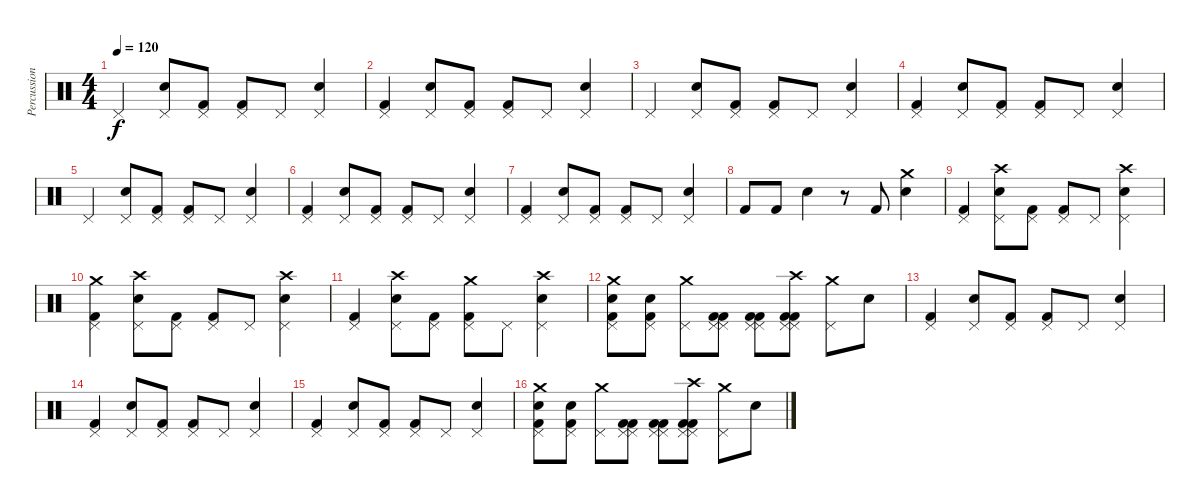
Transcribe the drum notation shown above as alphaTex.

\track ("Percussion" "Percussion") {instrument percussion}
\staff {score}
\articulation defaults
\ts (4 4)
\tempo 120
\clef neutral
\ks c "Pedal Hi-Hat (hit)".4{dy f}
("Pedal Hi-Hat (hit)" "Electric Snare (hit)").8 ("Pedal Hi-Hat (hit)" "Kick (hit) 2").8 ("Pedal Hi-Hat (hit)" "Kick (hit) 2").8 "Pedal Hi-Hat (hit)".8 ("Pedal Hi-Hat (hit)" "Electric Snare (hit)").4 |
("Pedal Hi-Hat (hit)" "Kick (hit) 2").4 ("Pedal Hi-Hat (hit)" "Electric Snare (hit)").8 ("Pedal Hi-Hat (hit)" "Kick (hit) 2").8 ("Pedal Hi-Hat (hit)" "Kick (hit) 2").8 "Pedal Hi-Hat (hit)".8 ("Pedal Hi-Hat (hit)" "Electric Snare (hit)").4 |
"Pedal Hi-Hat (hit)".4 ("Pedal Hi-Hat (hit)" "Electric Snare (hit)").8 ("Pedal Hi-Hat (hit)" "Kick (hit) 2").8 ("Pedal Hi-Hat (hit)" "Kick (hit) 2").8 "Pedal Hi-Hat (hit)".8 ("Pedal Hi-Hat (hit)" "Electric Snare (hit)").4 |
("Pedal Hi-Hat (hit)" "Kick (hit) 2").4 ("Pedal Hi-Hat (hit)" "Electric Snare (hit)").8 ("Pedal Hi-Hat (hit)" "Kick (hit) 2").8 ("Pedal Hi-Hat (hit)" "Kick (hit) 2").8 "Pedal Hi-Hat (hit)".8 ("Pedal Hi-Hat (hit)" "Electric Snare (hit)").4 |
"Pedal Hi-Hat (hit)".4 ("Pedal Hi-Hat (hit)" "Electric Snare (hit)").8 ("Pedal Hi-Hat (hit)" "Kick (hit) 2").8 ("Pedal Hi-Hat (hit)" "Kick (hit) 2").8 "Pedal Hi-Hat (hit)".8 ("Pedal Hi-Hat (hit)" "Electric Snare (hit)").4 |
("Pedal Hi-Hat (hit)" "Kick (hit) 2").4 ("Pedal Hi-Hat (hit)" "Electric Snare (hit)").8 ("Pedal Hi-Hat (hit)" "Kick (hit) 2").8 ("Pedal Hi-Hat (hit)" "Kick (hit) 2").8 "Pedal Hi-Hat (hit)".8 ("Pedal Hi-Hat (hit)" "Electric Snare (hit)").4 |
("Pedal Hi-Hat (hit)" "Kick (hit) 2").4 ("Pedal Hi-Hat (hit)" "Electric Snare (hit)").8 ("Pedal Hi-Hat (hit)" "Kick (hit) 2").8 ("Pedal Hi-Hat (hit)" "Kick (hit) 2").8 "Pedal Hi-Hat (hit)".8 ("Pedal Hi-Hat (hit)" "Electric Snare (hit)").4 |
"Kick (hit) 2".8 "Kick (hit) 2".8 "Electric Snare (hit)".4 r.8 "Kick (hit) 2".8 ("Crash medium (hit)" "Electric Snare (hit)").4 |
("Pedal Hi-Hat (hit)" "Kick (hit) 2").4 ("Pedal Hi-Hat (hit)" "Crash high (hit)" "Electric Snare (hit)").8 ("Pedal Hi-Hat (hit)" "Kick (hit) 2").8 ("Pedal Hi-Hat (hit)" "Kick (hit) 2").8 "Pedal Hi-Hat (hit)".8 ("Pedal Hi-Hat (hit)" "Electric Snare (hit)" "Crash high (hit)").4 |
("Pedal Hi-Hat (hit)" "Crash medium (hit)" "Kick (hit) 2").4 ("Pedal Hi-Hat (hit)" "Crash high (hit)" "Electric Snare (hit)").8 ("Pedal Hi-Hat (hit)" "Kick (hit) 2").8 ("Pedal Hi-Hat (hit)" "Kick (hit) 2").8 "Pedal Hi-Hat (hit)".8 ("Pedal Hi-Hat (hit)" "Electric Snare (hit)" "Crash high (hit)").4 |
("Pedal Hi-Hat (hit)" "Kick (hit) 2").4 ("Pedal Hi-Hat (hit)" "Crash high (hit)" "Electric Snare (hit)").8 ("Pedal Hi-Hat (hit)" "Kick (hit) 2").8 ("Pedal Hi-Hat (hit)" "Crash medium (hit)" "Kick (hit) 2").8 "Pedal Hi-Hat (hit)".8 ("Pedal Hi-Hat (hit)" "Electric Snare (hit)" "Crash high (hit)").4 |
("Pedal Hi-Hat (hit)" "Crash medium (hit)" "Electric Snare (hit)" "Kick (hit) 2").8 ("Pedal Hi-Hat (hit)" "Electric Snare (hit)" "Kick (hit) 2").8 ("Pedal Hi-Hat (hit)" "Crash medium (hit)").8 ("Pedal Hi-Hat (hit)" "Pedal Hi-Hat (hit)" "Kick (hit) 2" "Kick (hit) 2").8 ("Pedal Hi-Hat (hit)" "Pedal Hi-Hat (hit)" "Kick (hit) 2" "Kick (hit) 2").8 ("Pedal Hi-Hat (hit)" "Crash high (hit)" "Pedal Hi-Hat (hit)" "Kick (hit) 2" "Kick (hit) 2").8 ("Pedal Hi-Hat (hit)" "Crash medium (hit)").8 "Snare (hit)"{x}.8 |
("Pedal Hi-Hat (hit)" "Kick (hit) 2").4 ("Pedal Hi-Hat (hit)" "Electric Snare (hit)").8 ("Pedal Hi-Hat (hit)" "Kick (hit) 2").8 ("Pedal Hi-Hat (hit)" "Kick (hit) 2").8 "Pedal Hi-Hat (hit)".8 ("Pedal Hi-Hat (hit)" "Electric Snare (hit)").4 |
("Pedal Hi-Hat (hit)" "Kick (hit) 2").4 ("Pedal Hi-Hat (hit)" "Electric Snare (hit)").8 ("Pedal Hi-Hat (hit)" "Kick (hit) 2").8 ("Pedal Hi-Hat (hit)" "Kick (hit) 2").8 "Pedal Hi-Hat (hit)".8 ("Pedal Hi-Hat (hit)" "Electric Snare (hit)").4 |
("Pedal Hi-Hat (hit)" "Kick (hit) 2").4 ("Pedal Hi-Hat (hit)" "Electric Snare (hit)").8 ("Pedal Hi-Hat (hit)" "Kick (hit) 2").8 ("Pedal Hi-Hat (hit)" "Kick (hit) 2").8 "Pedal Hi-Hat (hit)".8 ("Pedal Hi-Hat (hit)" "Electric Snare (hit)").4 |
("Pedal Hi-Hat (hit)" "Crash medium (hit)" "Electric Snare (hit)" "Kick (hit) 2").8 ("Pedal Hi-Hat (hit)" "Electric Snare (hit)" "Kick (hit) 2").8 ("Pedal Hi-Hat (hit)" "Crash medium (hit)").8 ("Pedal Hi-Hat (hit)" "Pedal Hi-Hat (hit)" "Kick (hit) 2" "Kick (hit) 2").8 ("Pedal Hi-Hat (hit)" "Pedal Hi-Hat (hit)" "Kick (hit) 2" "Kick (hit) 2").8 ("Pedal Hi-Hat (hit)" "Crash high (hit)" "Pedal Hi-Hat (hit)" "Kick (hit) 2" "Kick (hit) 2").8 ("Pedal Hi-Hat (hit)" "Crash medium (hit)").8 "Snare (hit)"{x}.8
